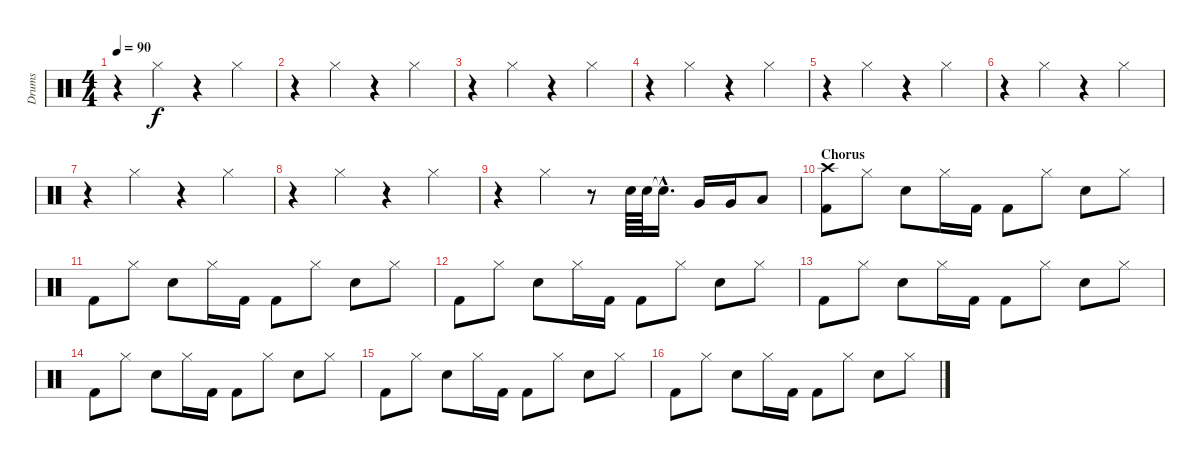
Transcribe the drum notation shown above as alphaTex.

\track ("Drums" "Drums") {instrument percussion}
\staff {score}
\articulation defaults
\ts (4 4)
\tempo 90
\clef neutral
\ks c
r.4{dy f} "Hi-Hat (closed)".4 r.4 "Hi-Hat (closed)".4 |
r.4 "Hi-Hat (closed)".4 r.4 "Hi-Hat (closed)".4 |
r.4 "Hi-Hat (closed)".4 r.4 "Hi-Hat (closed)".4 |
r.4 "Hi-Hat (closed)".4 r.4 "Hi-Hat (closed)".4 |
r.4 "Hi-Hat (closed)".4 r.4 "Hi-Hat (closed)".4 |
r.4 "Hi-Hat (closed)".4 r.4 "Hi-Hat (closed)".4 |
r.4 "Hi-Hat (closed)".4 r.4 "Hi-Hat (closed)".4 |
r.4 "Hi-Hat (closed)".4 r.4 "Hi-Hat (closed)".4 |
r.4 "Hi-Hat (closed)".4 r.8 "Snare (hit) 2".64 "Snare (hit) 2".64 "Snare (hit)"{hac t}.16{d} "Very Low Tom (hit)".16 "Very Low Tom (hit)".16 "Low Floor Tom (hit)".8 |
\section ("" "Chorus")
("Kick (hit) 2" "Crash high (hit)").8 "Hi-Hat (closed)".8 "Snare (hit) 2".8 "Hi-Hat (closed)".16 "Kick (hit) 2".16 "Kick (hit) 2".8 "Hi-Hat (closed)".8 "Snare (hit) 2".8 "Hi-Hat (closed)".8 |
"Kick (hit) 2".8 "Hi-Hat (closed)".8 "Snare (hit) 2".8 "Hi-Hat (closed)".16 "Kick (hit) 2".16 "Kick (hit) 2".8 "Hi-Hat (closed)".8 "Snare (hit) 2".8 "Hi-Hat (closed)".8 |
"Kick (hit) 2".8 "Hi-Hat (closed)".8 "Snare (hit) 2".8 "Hi-Hat (closed)".16 "Kick (hit) 2".16 "Kick (hit) 2".8 "Hi-Hat (closed)".8 "Snare (hit) 2".8 "Hi-Hat (closed)".8 |
"Kick (hit) 2".8 "Hi-Hat (closed)".8 "Snare (hit) 2".8 "Hi-Hat (closed)".16 "Kick (hit) 2".16 "Kick (hit) 2".8 "Hi-Hat (closed)".8 "Snare (hit) 2".8 "Hi-Hat (closed)".8 |
"Kick (hit) 2".8 "Hi-Hat (closed)".8 "Snare (hit) 2".8 "Hi-Hat (closed)".16 "Kick (hit) 2".16 "Kick (hit) 2".8 "Hi-Hat (closed)".8 "Snare (hit) 2".8 "Hi-Hat (closed)".8 |
"Kick (hit) 2".8 "Hi-Hat (closed)".8 "Snare (hit) 2".8 "Hi-Hat (closed)".16 "Kick (hit) 2".16 "Kick (hit) 2".8 "Hi-Hat (closed)".8 "Snare (hit) 2".8 "Hi-Hat (closed)".8 |
"Kick (hit) 2".8 "Hi-Hat (closed)".8 "Snare (hit) 2".8 "Hi-Hat (closed)".16 "Kick (hit) 2".16 "Kick (hit) 2".8 "Hi-Hat (closed)".8 "Snare (hit) 2".8 "Hi-Hat (closed)".8
